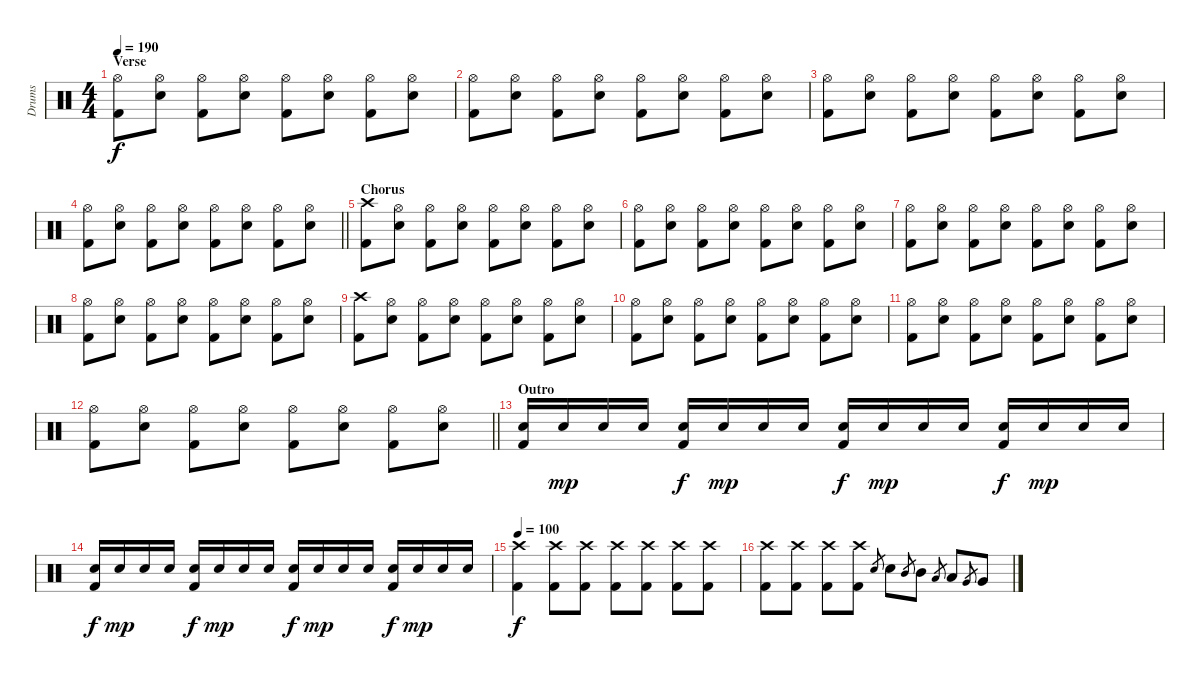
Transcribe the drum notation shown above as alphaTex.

\track ("Drums" "Drums") {instrument percussion}
\staff {score}
\articulation defaults
\ts (4 4)
\section ("" "Verse")
\tempo 190
\clef neutral
\ks c
("Hi-Hat (open)" "Kick (hit) 2").8{dy f} ("Hi-Hat (open)" "Electric Snare (hit)").8 ("Hi-Hat (open)" "Kick (hit) 2").8 ("Hi-Hat (open)" "Electric Snare (hit)").8 ("Hi-Hat (open)" "Kick (hit) 2").8 ("Hi-Hat (open)" "Electric Snare (hit)").8 ("Hi-Hat (open)" "Kick (hit) 2").8 ("Hi-Hat (open)" "Electric Snare (hit)").8 |
("Hi-Hat (open)" "Kick (hit) 2").8 ("Hi-Hat (open)" "Electric Snare (hit)").8 ("Hi-Hat (open)" "Kick (hit) 2").8 ("Hi-Hat (open)" "Electric Snare (hit)").8 ("Hi-Hat (open)" "Kick (hit) 2").8 ("Hi-Hat (open)" "Electric Snare (hit)").8 ("Hi-Hat (open)" "Kick (hit) 2").8 ("Hi-Hat (open)" "Electric Snare (hit)").8 |
("Hi-Hat (open)" "Kick (hit) 2").8 ("Hi-Hat (open)" "Electric Snare (hit)").8 ("Hi-Hat (open)" "Kick (hit) 2").8 ("Hi-Hat (open)" "Electric Snare (hit)").8 ("Hi-Hat (open)" "Kick (hit) 2").8 ("Hi-Hat (open)" "Electric Snare (hit)").8 ("Hi-Hat (open)" "Kick (hit) 2").8 ("Hi-Hat (open)" "Electric Snare (hit)").8 |
\barLineRight lightlight
("Hi-Hat (open)" "Kick (hit) 2").8 ("Hi-Hat (open)" "Electric Snare (hit)").8 ("Hi-Hat (open)" "Kick (hit) 2").8 ("Hi-Hat (open)" "Electric Snare (hit)").8 ("Hi-Hat (open)" "Kick (hit) 2").8 ("Hi-Hat (open)" "Electric Snare (hit)").8 ("Hi-Hat (open)" "Kick (hit) 2").8 ("Hi-Hat (open)" "Electric Snare (hit)").8 |
\section ("" "Chorus")
("Crash high (hit)" "Kick (hit) 2").8 ("Hi-Hat (open)" "Electric Snare (hit)").8 ("Hi-Hat (open)" "Kick (hit) 2").8 ("Hi-Hat (open)" "Electric Snare (hit)").8 ("Hi-Hat (open)" "Kick (hit) 2").8 ("Hi-Hat (open)" "Electric Snare (hit)").8 ("Hi-Hat (open)" "Kick (hit) 2").8 ("Hi-Hat (open)" "Electric Snare (hit)").8 |
("Hi-Hat (open)" "Kick (hit) 2").8 ("Hi-Hat (open)" "Electric Snare (hit)").8 ("Hi-Hat (open)" "Kick (hit) 2").8 ("Hi-Hat (open)" "Electric Snare (hit)").8 ("Hi-Hat (open)" "Kick (hit) 2").8 ("Hi-Hat (open)" "Electric Snare (hit)").8 ("Hi-Hat (open)" "Kick (hit) 2").8 ("Hi-Hat (open)" "Electric Snare (hit)").8 |
("Hi-Hat (open)" "Kick (hit) 2").8 ("Hi-Hat (open)" "Electric Snare (hit)").8 ("Hi-Hat (open)" "Kick (hit) 2").8 ("Hi-Hat (open)" "Electric Snare (hit)").8 ("Hi-Hat (open)" "Kick (hit) 2").8 ("Hi-Hat (open)" "Electric Snare (hit)").8 ("Hi-Hat (open)" "Kick (hit) 2").8 ("Hi-Hat (open)" "Electric Snare (hit)").8 |
("Hi-Hat (open)" "Kick (hit) 2").8 ("Hi-Hat (open)" "Electric Snare (hit)").8 ("Hi-Hat (open)" "Kick (hit) 2").8 ("Hi-Hat (open)" "Electric Snare (hit)").8 ("Hi-Hat (open)" "Kick (hit) 2").8 ("Hi-Hat (open)" "Electric Snare (hit)").8 ("Hi-Hat (open)" "Kick (hit) 2").8 ("Hi-Hat (open)" "Electric Snare (hit)").8 |
("Crash high (hit)" "Kick (hit) 2").8 ("Hi-Hat (open)" "Electric Snare (hit)").8 ("Hi-Hat (open)" "Kick (hit) 2").8 ("Hi-Hat (open)" "Electric Snare (hit)").8 ("Hi-Hat (open)" "Kick (hit) 2").8 ("Hi-Hat (open)" "Electric Snare (hit)").8 ("Hi-Hat (open)" "Kick (hit) 2").8 ("Hi-Hat (open)" "Electric Snare (hit)").8 |
("Hi-Hat (open)" "Kick (hit) 2").8 ("Hi-Hat (open)" "Electric Snare (hit)").8 ("Hi-Hat (open)" "Kick (hit) 2").8 ("Hi-Hat (open)" "Electric Snare (hit)").8 ("Hi-Hat (open)" "Kick (hit) 2").8 ("Hi-Hat (open)" "Electric Snare (hit)").8 ("Hi-Hat (open)" "Kick (hit) 2").8 ("Hi-Hat (open)" "Electric Snare (hit)").8 |
("Hi-Hat (open)" "Kick (hit) 2").8 ("Hi-Hat (open)" "Electric Snare (hit)").8 ("Hi-Hat (open)" "Kick (hit) 2").8 ("Hi-Hat (open)" "Electric Snare (hit)").8 ("Hi-Hat (open)" "Kick (hit) 2").8 ("Hi-Hat (open)" "Electric Snare (hit)").8 ("Hi-Hat (open)" "Kick (hit) 2").8 ("Hi-Hat (open)" "Electric Snare (hit)").8 |
\barLineRight lightlight
("Hi-Hat (open)" "Kick (hit) 2").8 ("Hi-Hat (open)" "Electric Snare (hit)").8 ("Hi-Hat (open)" "Kick (hit) 2").8 ("Hi-Hat (open)" "Electric Snare (hit)").8 ("Hi-Hat (open)" "Kick (hit) 2").8 ("Hi-Hat (open)" "Electric Snare (hit)").8 ("Hi-Hat (open)" "Kick (hit) 2").8 ("Hi-Hat (open)" "Electric Snare (hit)").8 |
\section ("" "Outro")
("Electric Snare (hit)" "Kick (hit) 2").16 "Electric Snare (hit)".16{dy mp} "Electric Snare (hit)".16 "Electric Snare (hit)".16 ("Electric Snare (hit)" "Kick (hit) 2").16{dy f} "Electric Snare (hit)".16{dy mp} "Electric Snare (hit)".16 "Electric Snare (hit)".16 ("Electric Snare (hit)" "Kick (hit) 2").16{dy f} "Electric Snare (hit)".16{dy mp} "Electric Snare (hit)".16 "Electric Snare (hit)".16 ("Electric Snare (hit)" "Kick (hit) 2").16{dy f} "Electric Snare (hit)".16{dy mp} "Electric Snare (hit)".16 "Electric Snare (hit)".16 |
("Electric Snare (hit)" "Kick (hit) 2").16{dy f} "Electric Snare (hit)".16{dy mp} "Electric Snare (hit)".16 "Electric Snare (hit)".16 ("Electric Snare (hit)" "Kick (hit) 2").16{dy f} "Electric Snare (hit)".16{dy mp} "Electric Snare (hit)".16 "Electric Snare (hit)".16 ("Electric Snare (hit)" "Kick (hit) 2").16{dy f} "Electric Snare (hit)".16{dy mp} "Electric Snare (hit)".16 "Electric Snare (hit)".16 ("Electric Snare (hit)" "Kick (hit) 2").16{dy f} "Electric Snare (hit)".16{dy mp} "Electric Snare (hit)".16 "Electric Snare (hit)".16 |
\tempo 100
("Crash high (hit)" "Kick (hit) 2").4{dy f} ("Crash high (hit)" "Kick (hit) 2").8 ("Crash high (hit)" "Kick (hit) 2").8 ("Crash high (hit)" "Kick (hit) 2").8 ("Crash high (hit)" "Kick (hit) 2").8 ("Crash high (hit)" "Kick (hit) 2").8 ("Crash high (hit)" "Kick (hit) 2").8 |
("Crash high (hit)" "Kick (hit) 2").8 ("Crash high (hit)" "Kick (hit) 2").8 ("Crash high (hit)" "Kick (hit) 2").8 ("Crash high (hit)" "Kick (hit) 2").8 "Electric Snare (hit)".8{gr} "Electric Snare (hit)".8 "Mid Tom (hit)".8{gr} "Mid Tom (hit)".8 "Low Tom (hit)".8{gr} "Low Tom (hit)".8 "Very Low Tom (hit)".8{gr} "Very Low Tom (hit)".8
